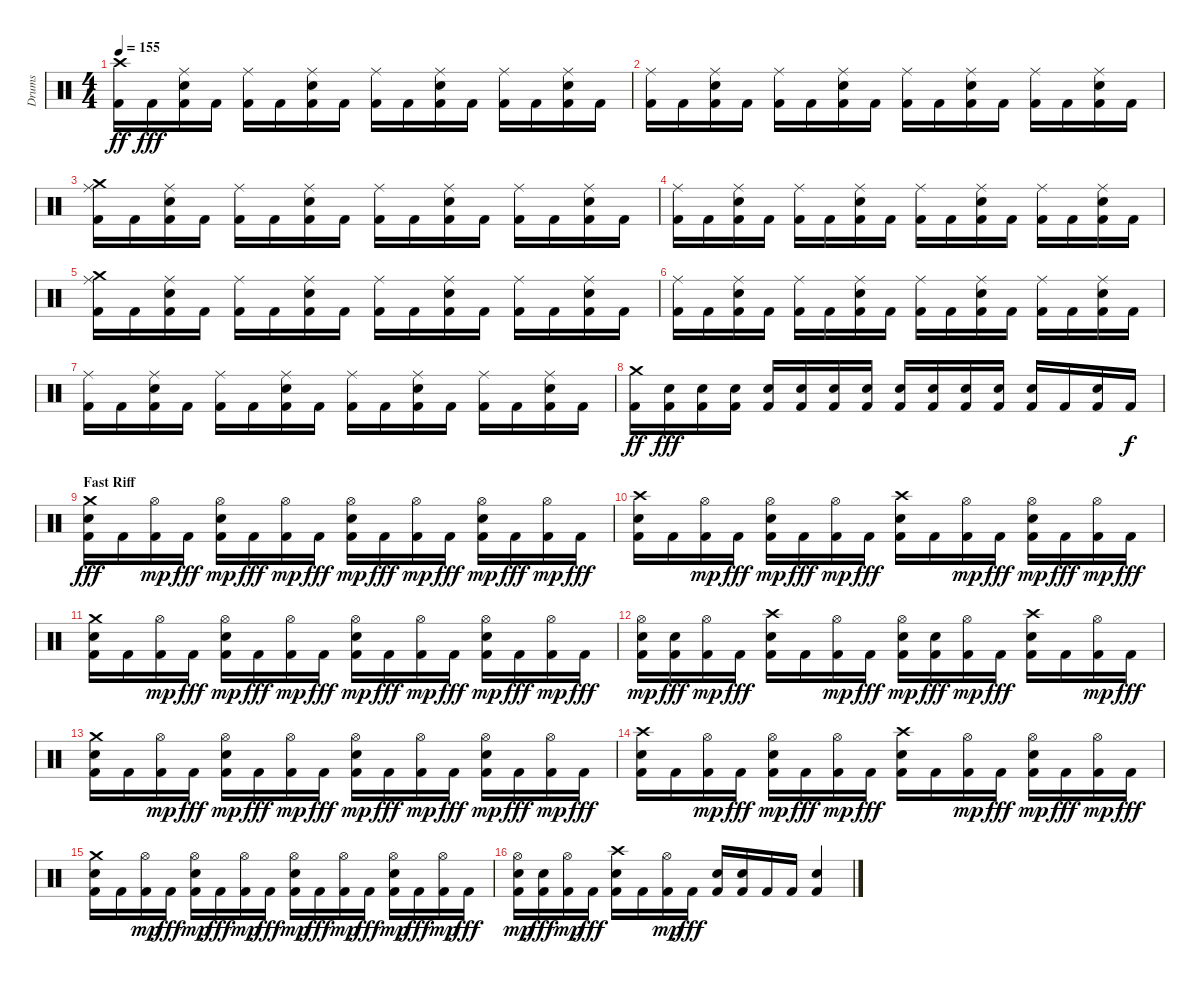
\track ("Drums" "Drums") {instrument percussion}
\staff {score}
\articulation defaults
\ts (4 4)
\tempo 155
\clef neutral
\ks c
("Kick (hit) 2" "Crash high (hit)").16{dy ff} "Kick (hit) 2".16{dy fff} ("Kick (hit) 2" "Ride (middle)" "Snare (hit) 2").16 "Kick (hit) 2".16 ("Kick (hit) 2" "Ride (middle)").16 "Kick (hit) 2".16 ("Kick (hit) 2" "Ride (middle)" "Snare (hit) 2").16 "Kick (hit) 2".16 ("Kick (hit) 2" "Ride (middle)").16 "Kick (hit) 2".16 ("Kick (hit) 2" "Ride (middle)" "Snare (hit) 2").16 "Kick (hit) 2".16 ("Kick (hit) 2" "Ride (middle)").16 "Kick (hit) 2".16 ("Kick (hit) 2" "Ride (middle)" "Snare (hit) 2").16 "Kick (hit) 2".16 |
("Kick (hit) 2" "Ride (middle)").16 "Kick (hit) 2".16 ("Kick (hit) 2" "Ride (middle)" "Snare (hit) 2").16 "Kick (hit) 2".16 ("Kick (hit) 2" "Ride (middle)").16 "Kick (hit) 2".16 ("Kick (hit) 2" "Ride (middle)" "Snare (hit) 2").16 "Kick (hit) 2".16 ("Kick (hit) 2" "Ride (middle)").16 "Kick (hit) 2".16 ("Kick (hit) 2" "Ride (middle)" "Snare (hit) 2").16 "Kick (hit) 2".16 ("Kick (hit) 2" "Ride (middle)").16 "Kick (hit) 2".16 ("Kick (hit) 2" "Ride (middle)" "Snare (hit) 2").16 "Kick (hit) 2".16 |
("Kick (hit) 2" "Ride (middle)" "Crash medium (hit)").16 "Kick (hit) 2".16 ("Kick (hit) 2" "Ride (middle)" "Snare (hit) 2").16 "Kick (hit) 2".16 ("Kick (hit) 2" "Ride (middle)").16 "Kick (hit) 2".16 ("Kick (hit) 2" "Ride (middle)" "Snare (hit) 2").16 "Kick (hit) 2".16 ("Kick (hit) 2" "Ride (middle)").16 "Kick (hit) 2".16 ("Kick (hit) 2" "Ride (middle)" "Snare (hit) 2").16 "Kick (hit) 2".16 ("Kick (hit) 2" "Ride (middle)").16 "Kick (hit) 2".16 ("Kick (hit) 2" "Ride (middle)" "Snare (hit) 2").16 "Kick (hit) 2".16 |
("Kick (hit) 2" "Ride (middle)").16 "Kick (hit) 2".16 ("Kick (hit) 2" "Ride (middle)" "Snare (hit) 2").16 "Kick (hit) 2".16 ("Kick (hit) 2" "Ride (middle)").16 "Kick (hit) 2".16 ("Kick (hit) 2" "Ride (middle)" "Snare (hit) 2").16 "Kick (hit) 2".16 ("Kick (hit) 2" "Ride (middle)").16 "Kick (hit) 2".16 ("Kick (hit) 2" "Ride (middle)" "Snare (hit) 2").16 "Kick (hit) 2".16 ("Kick (hit) 2" "Ride (middle)").16 "Kick (hit) 2".16 ("Kick (hit) 2" "Ride (middle)" "Snare (hit) 2").16 "Kick (hit) 2".16 |
("Kick (hit) 2" "Ride (middle)" "Crash medium (hit)").16 "Kick (hit) 2".16 ("Kick (hit) 2" "Ride (middle)" "Snare (hit) 2").16 "Kick (hit) 2".16 ("Kick (hit) 2" "Ride (middle)").16 "Kick (hit) 2".16 ("Kick (hit) 2" "Ride (middle)" "Snare (hit) 2").16 "Kick (hit) 2".16 ("Kick (hit) 2" "Ride (middle)").16 "Kick (hit) 2".16 ("Kick (hit) 2" "Ride (middle)" "Snare (hit) 2").16 "Kick (hit) 2".16 ("Kick (hit) 2" "Ride (middle)").16 "Kick (hit) 2".16 ("Kick (hit) 2" "Ride (middle)" "Snare (hit) 2").16 "Kick (hit) 2".16 |
("Kick (hit) 2" "Ride (middle)").16 "Kick (hit) 2".16 ("Kick (hit) 2" "Ride (middle)" "Snare (hit) 2").16 "Kick (hit) 2".16 ("Kick (hit) 2" "Ride (middle)").16 "Kick (hit) 2".16 ("Kick (hit) 2" "Ride (middle)" "Snare (hit) 2").16 "Kick (hit) 2".16 ("Kick (hit) 2" "Ride (middle)").16 "Kick (hit) 2".16 ("Kick (hit) 2" "Ride (middle)" "Snare (hit) 2").16 "Kick (hit) 2".16 ("Kick (hit) 2" "Ride (middle)").16 "Kick (hit) 2".16 ("Kick (hit) 2" "Ride (middle)" "Snare (hit) 2").16 "Kick (hit) 2".16 |
("Kick (hit) 2" "Ride (middle)").16 "Kick (hit) 2".16 ("Kick (hit) 2" "Ride (middle)" "Snare (hit) 2").16 "Kick (hit) 2".16 ("Kick (hit) 2" "Ride (middle)").16 "Kick (hit) 2".16 ("Kick (hit) 2" "Ride (middle)" "Snare (hit) 2").16 "Kick (hit) 2".16 ("Kick (hit) 2" "Ride (middle)").16 "Kick (hit) 2".16 ("Kick (hit) 2" "Ride (middle)" "Snare (hit) 2").16 "Kick (hit) 2".16 ("Kick (hit) 2" "Ride (middle)").16 "Kick (hit) 2".16 ("Kick (hit) 2" "Ride (middle)" "Snare (hit) 2").16 "Kick (hit) 2".16 |
("Kick (hit) 2" "Crash medium (hit)").16{dy ff} ("Kick (hit) 2" "Snare (hit) 2").16{dy fff} ("Kick (hit) 2" "Snare (hit) 2").16 ("Kick (hit) 2" "Snare (hit) 2").16 ("Kick (hit) 2" "Snare (hit) 2").16 ("Kick (hit) 2" "Snare (hit) 2").16 ("Kick (hit) 2" "Snare (hit) 2").16 ("Kick (hit) 2" "Snare (hit) 2").16 ("Kick (hit) 2" "Snare (hit) 2").16 ("Kick (hit) 2" "Snare (hit) 2").16 ("Kick (hit) 2" "Snare (hit) 2").16 ("Kick (hit) 2" "Snare (hit) 2").16 ("Kick (hit) 2" "Snare (hit) 2").16 "Kick (hit) 2".16 ("Kick (hit) 2" "Snare (hit) 2").16 "Kick (hit) 2".16{dy f} |
\section ("" "Fast Riff")
("Kick (hit) 2" "Snare (hit) 2" "Crash medium (hit)").16{dy fff} "Kick (hit) 2".16 ("Kick (hit) 2" "Hi-Hat (open)").16{dy mp} "Kick (hit) 2".16{dy fff} ("Kick (hit) 2" "Hi-Hat (open)" "Snare (hit) 2").16{dy mp} "Kick (hit) 2".16{dy fff} ("Kick (hit) 2" "Hi-Hat (open)").16{dy mp} "Kick (hit) 2".16{dy fff} ("Kick (hit) 2" "Hi-Hat (open)" "Snare (hit) 2").16{dy mp} "Kick (hit) 2".16{dy fff} ("Kick (hit) 2" "Hi-Hat (open)").16{dy mp} "Kick (hit) 2".16{dy fff} ("Kick (hit) 2" "Hi-Hat (open)" "Snare (hit) 2").16{dy mp} "Kick (hit) 2".16{dy fff} ("Kick (hit) 2" "Hi-Hat (open)").16{dy mp} "Kick (hit) 2".16{dy fff} |
("Kick (hit) 2" "Snare (hit) 2" "Crash high (hit)").16 "Kick (hit) 2".16 ("Kick (hit) 2" "Hi-Hat (open)").16{dy mp} "Kick (hit) 2".16{dy fff} ("Kick (hit) 2" "Hi-Hat (open)" "Snare (hit) 2").16{dy mp} "Kick (hit) 2".16{dy fff} ("Kick (hit) 2" "Hi-Hat (open)").16{dy mp} "Kick (hit) 2".16{dy fff} ("Kick (hit) 2" "Snare (hit) 2" "Crash high (hit)").16 "Kick (hit) 2".16 ("Kick (hit) 2" "Hi-Hat (open)").16{dy mp} "Kick (hit) 2".16{dy fff} ("Kick (hit) 2" "Hi-Hat (open)" "Snare (hit) 2").16{dy mp} "Kick (hit) 2".16{dy fff} ("Kick (hit) 2" "Hi-Hat (open)").16{dy mp} "Kick (hit) 2".16{dy fff} |
("Kick (hit) 2" "Snare (hit) 2" "Crash medium (hit)").16 "Kick (hit) 2".16 ("Kick (hit) 2" "Hi-Hat (open)").16{dy mp} "Kick (hit) 2".16{dy fff} ("Kick (hit) 2" "Hi-Hat (open)" "Snare (hit) 2").16{dy mp} "Kick (hit) 2".16{dy fff} ("Kick (hit) 2" "Hi-Hat (open)").16{dy mp} "Kick (hit) 2".16{dy fff} ("Kick (hit) 2" "Hi-Hat (open)" "Snare (hit) 2").16{dy mp} "Kick (hit) 2".16{dy fff} ("Kick (hit) 2" "Hi-Hat (open)").16{dy mp} "Kick (hit) 2".16{dy fff} ("Kick (hit) 2" "Hi-Hat (open)" "Snare (hit) 2").16{dy mp} "Kick (hit) 2".16{dy fff} ("Kick (hit) 2" "Hi-Hat (open)").16{dy mp} "Kick (hit) 2".16{dy fff} |
("Kick (hit) 2" "Hi-Hat (open)" "Snare (hit) 2").16{dy mp} ("Kick (hit) 2" "Snare (hit) 2").16{dy fff} ("Kick (hit) 2" "Hi-Hat (open)").16{dy mp} "Kick (hit) 2".16{dy fff} ("Kick (hit) 2" "Snare (hit) 2" "Crash high (hit)").16 "Kick (hit) 2".16 ("Kick (hit) 2" "Hi-Hat (open)").16{dy mp} "Kick (hit) 2".16{dy fff} ("Kick (hit) 2" "Hi-Hat (open)" "Snare (hit) 2").16{dy mp} ("Kick (hit) 2" "Snare (hit) 2").16{dy fff} ("Kick (hit) 2" "Hi-Hat (open)").16{dy mp} "Kick (hit) 2".16{dy fff} ("Kick (hit) 2" "Snare (hit) 2" "Crash high (hit)").16 "Kick (hit) 2".16 ("Kick (hit) 2" "Hi-Hat (open)").16{dy mp} "Kick (hit) 2".16{dy fff} |
("Kick (hit) 2" "Snare (hit) 2" "Crash medium (hit)").16 "Kick (hit) 2".16 ("Kick (hit) 2" "Hi-Hat (open)").16{dy mp} "Kick (hit) 2".16{dy fff} ("Kick (hit) 2" "Hi-Hat (open)" "Snare (hit) 2").16{dy mp} "Kick (hit) 2".16{dy fff} ("Kick (hit) 2" "Hi-Hat (open)").16{dy mp} "Kick (hit) 2".16{dy fff} ("Kick (hit) 2" "Hi-Hat (open)" "Snare (hit) 2").16{dy mp} "Kick (hit) 2".16{dy fff} ("Kick (hit) 2" "Hi-Hat (open)").16{dy mp} "Kick (hit) 2".16{dy fff} ("Kick (hit) 2" "Hi-Hat (open)" "Snare (hit) 2").16{dy mp} "Kick (hit) 2".16{dy fff} ("Kick (hit) 2" "Hi-Hat (open)").16{dy mp} "Kick (hit) 2".16{dy fff} |
("Kick (hit) 2" "Snare (hit) 2" "Crash high (hit)").16 "Kick (hit) 2".16 ("Kick (hit) 2" "Hi-Hat (open)").16{dy mp} "Kick (hit) 2".16{dy fff} ("Kick (hit) 2" "Hi-Hat (open)" "Snare (hit) 2").16{dy mp} "Kick (hit) 2".16{dy fff} ("Kick (hit) 2" "Hi-Hat (open)").16{dy mp} "Kick (hit) 2".16{dy fff} ("Kick (hit) 2" "Snare (hit) 2" "Crash high (hit)").16 "Kick (hit) 2".16 ("Kick (hit) 2" "Hi-Hat (open)").16{dy mp} "Kick (hit) 2".16{dy fff} ("Kick (hit) 2" "Hi-Hat (open)" "Snare (hit) 2").16{dy mp} "Kick (hit) 2".16{dy fff} ("Kick (hit) 2" "Hi-Hat (open)").16{dy mp} "Kick (hit) 2".16{dy fff} |
("Kick (hit) 2" "Snare (hit) 2" "Crash medium (hit)").16 "Kick (hit) 2".16 ("Kick (hit) 2" "Hi-Hat (open)").16{dy mp} "Kick (hit) 2".16{dy fff} ("Kick (hit) 2" "Hi-Hat (open)" "Snare (hit) 2").16{dy mp} "Kick (hit) 2".16{dy fff} ("Kick (hit) 2" "Hi-Hat (open)").16{dy mp} "Kick (hit) 2".16{dy fff} ("Kick (hit) 2" "Hi-Hat (open)" "Snare (hit) 2").16{dy mp} "Kick (hit) 2".16{dy fff} ("Kick (hit) 2" "Hi-Hat (open)").16{dy mp} "Kick (hit) 2".16{dy fff} ("Kick (hit) 2" "Hi-Hat (open)" "Snare (hit) 2").16{dy mp} "Kick (hit) 2".16{dy fff} ("Kick (hit) 2" "Hi-Hat (open)").16{dy mp} "Kick (hit) 2".16{dy fff} |
("Kick (hit) 2" "Hi-Hat (open)" "Snare (hit) 2").16{dy mp} ("Kick (hit) 2" "Snare (hit) 2").16{dy fff} ("Kick (hit) 2" "Hi-Hat (open)").16{dy mp} "Kick (hit) 2".16{dy fff} ("Kick (hit) 2" "Snare (hit) 2" "Crash high (hit)").16 "Kick (hit) 2".16 ("Kick (hit) 2" "Hi-Hat (open)").16{dy mp} "Kick (hit) 2".16{dy fff} ("Kick (hit) 2" "Snare (hit) 2").16 ("Kick (hit) 2" "Snare (hit) 2").16 "Kick (hit) 2".16 "Kick (hit) 2".16 ("Kick (hit) 2" "Snare (hit) 2").4
